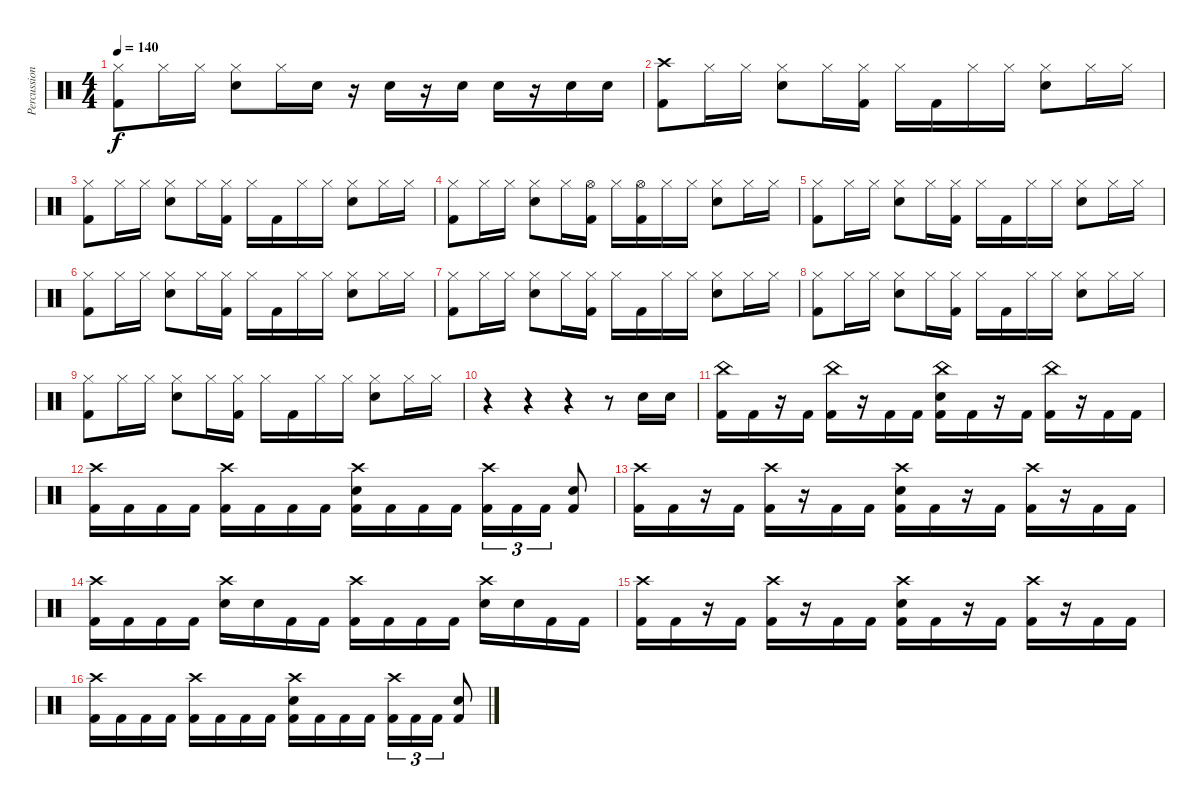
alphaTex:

\track ("Percussion" "Percussion") {instrument percussion}
\staff
\articulation defaults
\ts (4 4)
\tempo 140
\clef neutral
\ks c
("Hi-Hat (closed)" "Kick (hit) 2").8{dy f} "Hi-Hat (closed)".16 "Hi-Hat (closed)".16 ("Hi-Hat (closed)" "Electric Snare (hit)").8 "Hi-Hat (closed)".16 "Electric Snare (hit)".16 r.16 "Electric Snare (hit)".16 r.16 "Electric Snare (hit)".16 "Electric Snare (hit)".16 r.16 "Electric Snare (hit)".16 "Electric Snare (hit)".16 |
("Crash high (hit)" "Kick (hit) 2").8 "Hi-Hat (closed)".16 "Hi-Hat (closed)".16 ("Hi-Hat (closed)" "Electric Snare (hit)").8 "Hi-Hat (closed)".16 ("Hi-Hat (closed)" "Kick (hit) 2").16 "Hi-Hat (closed)".16 "Kick (hit) 2".16 "Hi-Hat (closed)".16 "Hi-Hat (closed)".16 ("Hi-Hat (closed)" "Electric Snare (hit)").8 "Hi-Hat (closed)".16 "Hi-Hat (closed)".16 |
("Hi-Hat (closed)" "Kick (hit) 2").8 "Hi-Hat (closed)".16 "Hi-Hat (closed)".16 ("Hi-Hat (closed)" "Electric Snare (hit)").8 "Hi-Hat (closed)".16 ("Hi-Hat (closed)" "Kick (hit) 2").16 "Hi-Hat (closed)".16 "Kick (hit) 2".16 "Hi-Hat (closed)".16 "Hi-Hat (closed)".16 ("Hi-Hat (closed)" "Electric Snare (hit)").8 "Hi-Hat (closed)".16 "Hi-Hat (closed)".16 |
("Hi-Hat (closed)" "Kick (hit) 2").8 "Hi-Hat (closed)".16 "Hi-Hat (closed)".16 ("Hi-Hat (closed)" "Electric Snare (hit)").8 "Hi-Hat (closed)".16 ("Hi-Hat (open)" "Kick (hit) 2").16 "Hi-Hat (closed)".16 ("Hi-Hat (open)" "Kick (hit) 2").16 "Hi-Hat (closed)".16 "Hi-Hat (closed)".16 ("Hi-Hat (closed)" "Electric Snare (hit)").8 "Hi-Hat (closed)".16 "Hi-Hat (closed)".16 |
("Hi-Hat (closed)" "Kick (hit) 2").8 "Hi-Hat (closed)".16 "Hi-Hat (closed)".16 ("Hi-Hat (closed)" "Electric Snare (hit)").8 "Hi-Hat (closed)".16 ("Hi-Hat (closed)" "Kick (hit) 2").16 "Hi-Hat (closed)".16 "Kick (hit) 2".16 "Hi-Hat (closed)".16 "Hi-Hat (closed)".16 ("Hi-Hat (closed)" "Electric Snare (hit)").8 "Hi-Hat (closed)".16 "Hi-Hat (closed)".16 |
("Hi-Hat (closed)" "Kick (hit) 2").8 "Hi-Hat (closed)".16 "Hi-Hat (closed)".16 ("Hi-Hat (closed)" "Electric Snare (hit)").8 "Hi-Hat (closed)".16 ("Hi-Hat (closed)" "Kick (hit) 2").16 "Hi-Hat (closed)".16 "Kick (hit) 2".16 "Hi-Hat (closed)".16 "Hi-Hat (closed)".16 ("Hi-Hat (closed)" "Electric Snare (hit)").8 "Hi-Hat (closed)".16 "Hi-Hat (closed)".16 |
("Hi-Hat (closed)" "Kick (hit) 2").8 "Hi-Hat (closed)".16 "Hi-Hat (closed)".16 ("Hi-Hat (closed)" "Electric Snare (hit)").8 "Hi-Hat (closed)".16 ("Hi-Hat (closed)" "Kick (hit) 2").16 "Hi-Hat (closed)".16 "Kick (hit) 2".16 "Hi-Hat (closed)".16 "Hi-Hat (closed)".16 ("Hi-Hat (closed)" "Electric Snare (hit)").8 "Hi-Hat (closed)".16 "Hi-Hat (closed)".16 |
("Hi-Hat (closed)" "Kick (hit) 2").8 "Hi-Hat (closed)".16 "Hi-Hat (closed)".16 ("Hi-Hat (closed)" "Electric Snare (hit)").8 "Hi-Hat (closed)".16 ("Hi-Hat (closed)" "Kick (hit) 2").16 "Hi-Hat (closed)".16 "Kick (hit) 2".16 "Hi-Hat (closed)".16 "Hi-Hat (closed)".16 ("Hi-Hat (closed)" "Electric Snare (hit)").8 "Hi-Hat (closed)".16 "Hi-Hat (closed)".16 |
("Hi-Hat (closed)" "Kick (hit) 2").8 "Hi-Hat (closed)".16 "Hi-Hat (closed)".16 ("Hi-Hat (closed)" "Electric Snare (hit)").8 "Hi-Hat (closed)".16 ("Hi-Hat (closed)" "Kick (hit) 2").16 "Hi-Hat (closed)".16 "Kick (hit) 2".16 "Hi-Hat (closed)".16 "Hi-Hat (closed)".16 ("Hi-Hat (closed)" "Electric Snare (hit)").8 "Hi-Hat (closed)".16 "Hi-Hat (closed)".16 |
r.4 r.4 r.4 r.8 "Electric Snare (hit)".16 "Electric Snare (hit)".16 |
("China (hit)" "Kick (hit) 2").16 "Kick (hit) 2".16 r.16 "Kick (hit) 2".16 ("China (hit)" "Kick (hit) 2").16 r.16 "Kick (hit) 2".16 "Kick (hit) 2".16 ("China (hit)" "Electric Snare (hit)" "Kick (hit) 2").16 "Kick (hit) 2".16 r.16 "Kick (hit) 2".16 ("China (hit)" "Kick (hit) 2").16 r.16 "Kick (hit) 2".16 "Kick (hit) 2".16 |
("Crash high (hit)" "Kick (hit) 2").16 "Kick (hit) 2".16 "Kick (hit) 2".16 "Kick (hit) 2".16 ("Crash high (hit)" "Kick (hit) 2").16 "Kick (hit) 2".16 "Kick (hit) 2".16 "Kick (hit) 2".16 ("Crash high (hit)" "Electric Snare (hit)" "Kick (hit) 2").16 "Kick (hit) 2".16 "Kick (hit) 2".16 "Kick (hit) 2".16 ("Crash high (hit)" "Kick (hit) 2").16{tu (3 2)} "Kick (hit) 2".16{tu (3 2)} "Kick (hit) 2".16{tu (3 2)} ("Electric Snare (hit)" "Kick (hit) 2").8 |
("Crash high (hit)" "Kick (hit) 2").16 "Kick (hit) 2".16 r.16 "Kick (hit) 2".16 ("Crash high (hit)" "Kick (hit) 2").16 r.16 "Kick (hit) 2".16 "Kick (hit) 2".16 ("Crash high (hit)" "Electric Snare (hit)" "Kick (hit) 2").16 "Kick (hit) 2".16 r.16 "Kick (hit) 2".16 ("Crash high (hit)" "Kick (hit) 2").16 r.16 "Kick (hit) 2".16 "Kick (hit) 2".16 |
("Crash high (hit)" "Kick (hit) 2").16 "Kick (hit) 2".16 "Kick (hit) 2".16 "Kick (hit) 2".16 ("Crash high (hit)" "Electric Snare (hit)").16 "Electric Snare (hit)".16 "Kick (hit) 2".16 "Kick (hit) 2".16 ("Crash high (hit)" "Kick (hit) 2").16 "Kick (hit) 2".16 "Kick (hit) 2".16 "Kick (hit) 2".16 ("Crash high (hit)" "Electric Snare (hit)").16 "Electric Snare (hit)".16 "Kick (hit) 2".16 "Kick (hit) 2".16 |
("Crash high (hit)" "Kick (hit) 2").16 "Kick (hit) 2".16 r.16 "Kick (hit) 2".16 ("Crash high (hit)" "Kick (hit) 2").16 r.16 "Kick (hit) 2".16 "Kick (hit) 2".16 ("Crash high (hit)" "Electric Snare (hit)" "Kick (hit) 2").16 "Kick (hit) 2".16 r.16 "Kick (hit) 2".16 ("Crash high (hit)" "Kick (hit) 2").16 r.16 "Kick (hit) 2".16 "Kick (hit) 2".16 |
("Crash high (hit)" "Kick (hit) 2").16 "Kick (hit) 2".16 "Kick (hit) 2".16 "Kick (hit) 2".16 ("Crash high (hit)" "Kick (hit) 2").16 "Kick (hit) 2".16 "Kick (hit) 2".16 "Kick (hit) 2".16 ("Crash high (hit)" "Electric Snare (hit)" "Kick (hit) 2").16 "Kick (hit) 2".16 "Kick (hit) 2".16 "Kick (hit) 2".16 ("Crash high (hit)" "Kick (hit) 2").16{tu (3 2)} "Kick (hit) 2".16{tu (3 2)} "Kick (hit) 2".16{tu (3 2)} ("Electric Snare (hit)" "Kick (hit) 2").8
